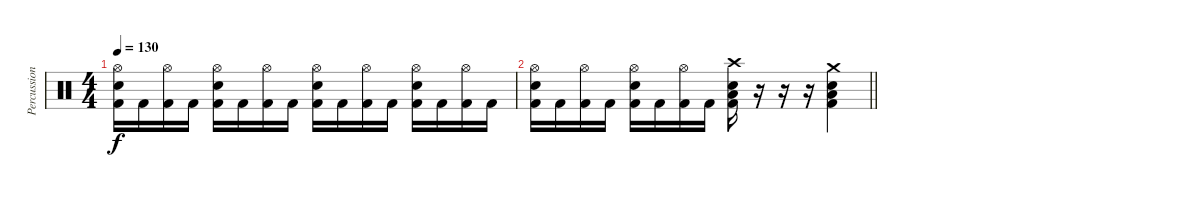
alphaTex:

\track ("Percussions" "Percussion") {instrument percussion}
\staff {score}
\articulation defaults
\ts (4 4)
\tempo 130
\clef neutral
\ks c
("Hi-Hat (open)" "Electric Snare (hit)" "Kick (hit) 2").16{dy f} "Kick (hit) 2".16 ("Hi-Hat (open)" "Kick (hit) 2").16 "Kick (hit) 2".16 ("Hi-Hat (open)" "Electric Snare (hit)" "Kick (hit) 2").16 "Kick (hit) 2".16 ("Hi-Hat (open)" "Kick (hit) 2").16 "Kick (hit) 2".16 ("Hi-Hat (open)" "Electric Snare (hit)" "Kick (hit) 2").16 "Kick (hit) 2".16 ("Hi-Hat (open)" "Kick (hit) 2").16 "Kick (hit) 2".16 ("Hi-Hat (open)" "Electric Snare (hit)" "Kick (hit) 2").16 "Kick (hit) 2".16 ("Hi-Hat (open)" "Kick (hit) 2").16 "Kick (hit) 2".16 |
\barLineRight lightlight
("Hi-Hat (open)" "Electric Snare (hit)" "Kick (hit) 2").16 "Kick (hit) 2".16 ("Hi-Hat (open)" "Kick (hit) 2").16 "Kick (hit) 2".16 ("Hi-Hat (open)" "Electric Snare (hit)" "Kick (hit) 2").16 "Kick (hit) 2".16 ("Hi-Hat (open)" "Kick (hit) 2").16 "Kick (hit) 2".16 ("Crash high (hit)" "Electric Snare (hit)" "Low Tom (hit)" "Kick (hit) 2").16 r.16 r.16 r.16 ("Crash medium (hit)" "Electric Snare (hit)" "Low Tom (hit)" "Kick (hit) 2").4
